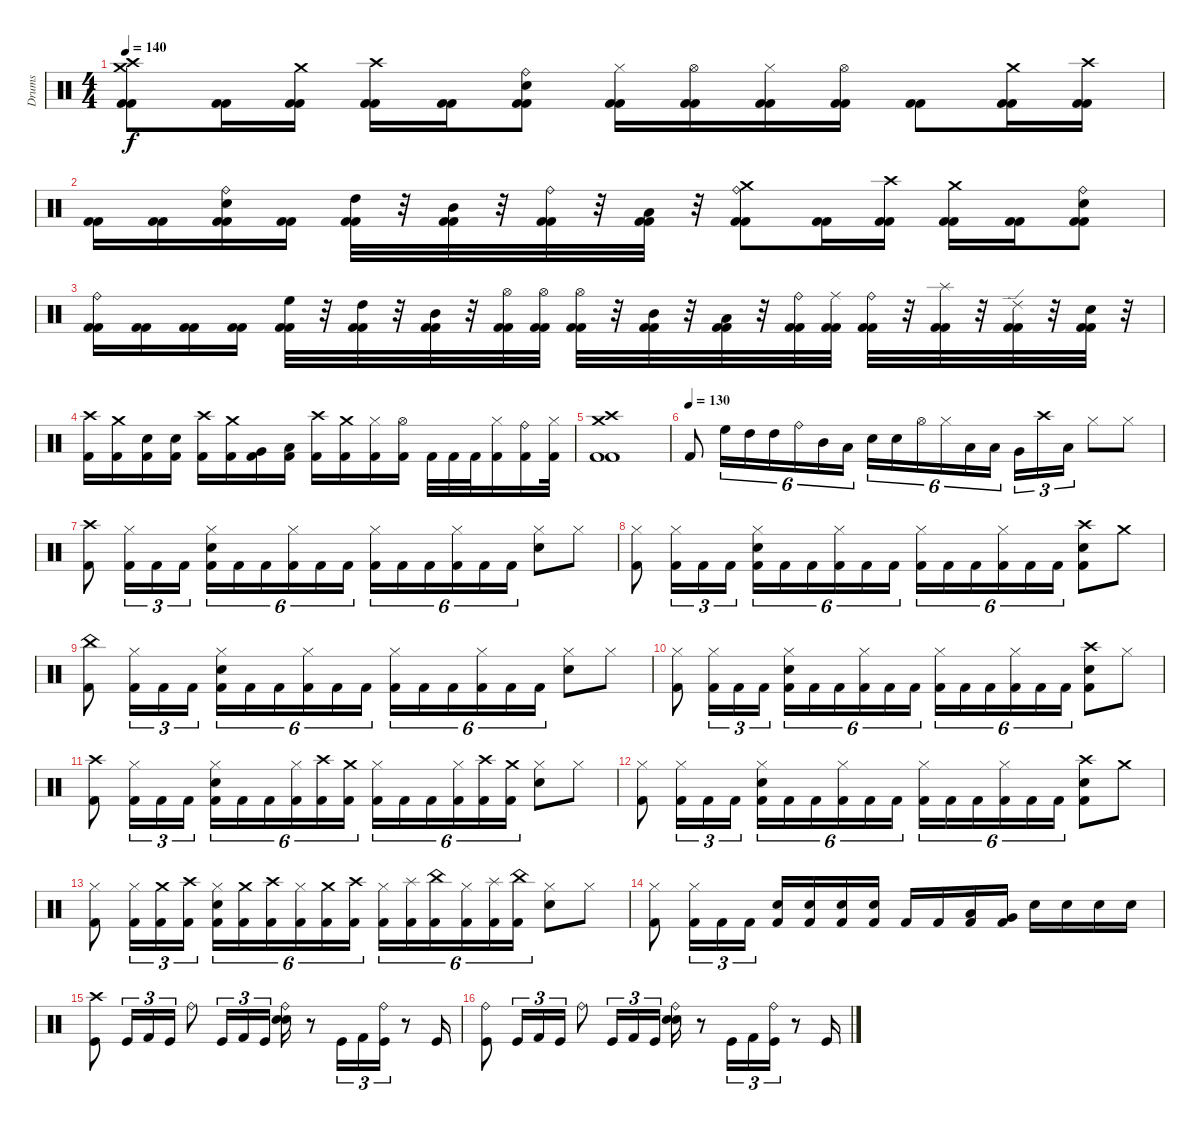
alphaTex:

\track ("Drums" "Drums") {instrument percussion}
\staff {score}
\articulation defaults
\ts (4 4)
\tempo 140
\clef neutral
\ks c
("Crash high (hit)" "Crash medium (hit)" "Kick (hit) 2" "Kick (hit) 2").8{dy f} ("Kick (hit) 2" "Kick (hit) 2").16 ("Crash medium (hit)" "Kick (hit) 2" "Kick (hit) 2").16 ("Crash high (hit)" "Kick (hit) 2" "Kick (hit) 2").16 ("Kick (hit) 2" "Kick (hit) 2").16 ("Electric Snare (hit)" "Ride (bell)" "Kick (hit) 2" "Kick (hit) 2").8 ("Hi-Hat (closed)" "Kick (hit) 2" "Kick (hit) 2").16 ("Hi-Hat (open)" "Kick (hit) 2" "Kick (hit) 2").16 ("Hi-Hat (closed)" "Kick (hit) 2" "Kick (hit) 2").16 ("Hi-Hat (open)" "Kick (hit) 2" "Kick (hit) 2").16 ("Kick (hit) 2" "Kick (hit) 2").8 ("Crash medium (hit)" "Kick (hit) 2" "Kick (hit) 2").16 ("Crash high (hit)" "Kick (hit) 2" "Kick (hit) 2").16 |
("Kick (hit) 2" "Kick (hit) 2").16 ("Kick (hit) 2" "Kick (hit) 2").16 ("Electric Snare (hit)" "Ride (bell)" "Kick (hit) 2" "Kick (hit) 2").16 ("Kick (hit) 2" "Kick (hit) 2").16 ("High Tom (hit)" "Kick (hit) 2" "Kick (hit) 2").32 r.32 ("Mid Tom (hit)" "Kick (hit) 2" "Kick (hit) 2").32 r.32 ("Ride (bell)" "Kick (hit) 2" "Kick (hit) 2").32 r.32 ("Low Floor Tom (hit)" "Kick (hit) 2" "Kick (hit) 2").32 r.32 ("Crash medium (hit)" "Ride (bell)" "Kick (hit) 2" "Kick (hit) 2").8 ("Kick (hit) 2" "Kick (hit) 2").16 ("Crash high (hit)" "Kick (hit) 2" "Kick (hit) 2").16 ("Crash medium (hit)" "Kick (hit) 2" "Kick (hit) 2").16 ("Kick (hit) 2" "Kick (hit) 2").16 ("Electric Snare (hit)" "Ride (bell)" "Kick (hit) 2" "Kick (hit) 2").8 |
("Ride (bell)" "Kick (hit) 2" "Kick (hit) 2").16 ("Kick (hit) 2" "Kick (hit) 2").16 ("Kick (hit) 2" "Kick (hit) 2").16 ("Kick (hit) 2" "Kick (hit) 2").16 ("High Floor Tom (hit)" "Kick (hit) 2" "Kick (hit) 2").32 r.32 ("High Tom (hit)" "Kick (hit) 2" "Kick (hit) 2").32 r.32 ("Mid Tom (hit)" "Kick (hit) 2" "Kick (hit) 2").32 r.32 ("Hi-Hat (open)" "Kick (hit) 2" "Kick (hit) 2").32 ("Hi-Hat (open)" "Kick (hit) 2" "Kick (hit) 2").32 ("Hi-Hat (open)" "Kick (hit) 2" "Kick (hit) 2").32 r.32 ("Mid Tom (hit)" "Kick (hit) 2" "Kick (hit) 2").32 r.32 ("Low Tom (hit)" "Kick (hit) 2" "Kick (hit) 2").32 r.32 ("Ride (bell)" "Kick (hit) 2" "Kick (hit) 2").32 ("Ride (middle)" "Kick (hit) 2" "Kick (hit) 2").32 ("Ride (bell)" "Kick (hit) 2" "Kick (hit) 2").32 r.32 ("Splash (hit)" "Kick (hit) 2" "Kick (hit) 2").32 r.32 ("Ride (edge) 2" "Kick (hit) 2" "Kick (hit) 2").32 r.32 ("Electric Snare (hit)" "Kick (hit) 2" "Kick (hit) 2").32 r.32 |
("Crash high (hit)" "Kick (hit) 2").16 ("Crash medium (hit)" "Kick (hit) 2").16 ("Electric Snare (hit)" "Kick (hit) 2").16 ("Electric Snare (hit)" "Kick (hit) 2").16 ("Crash high (hit)" "Kick (hit) 2").16 ("Crash medium (hit)" "Kick (hit) 2").16 ("Very Low Tom (hit)" "Kick (hit) 2").16 ("Low Floor Tom (hit)" "Kick (hit) 2").16 ("Crash high (hit)" "Kick (hit) 2").16 ("Crash medium (hit)" "Kick (hit) 2").16 ("Hi-Hat (closed)" "Kick (hit) 2").16 ("Hi-Hat (open)" "Kick (hit) 2").16 "Kick (hit) 2".32 "Kick (hit) 2".32 "Kick (hit) 2".32 ("Hi-Hat (closed)" "Kick (hit) 2").16 ("Ride (bell)" "Kick (hit) 2").16 ("Hi-Hat (closed)" "Kick (hit) 2").32 |
("Crash high (hit)" "Crash medium (hit)" "Kick (hit) 2" "Kick (hit) 2").1 |
\tempo (130)
"Kick (hit) 2".8 "High Floor Tom (hit)".16{tu (6 4)} "High Tom (hit)".16{tu (6 4)} "High Tom (hit)".16{tu (6 4)} "Ride (bell)".16{tu (6 4)} "Mid Tom (hit)".16{tu (6 4)} "Low Tom (hit)".16{tu (6 4)} "Electric Snare (hit)".16{tu (6 4)} "Electric Snare (hit)".16{tu (6 4)} "Hi-Hat (open)".16{tu (6 4)} "Hi-Hat (closed)".16{tu (6 4)} "Low Tom (hit)".16{tu (6 4)} "Low Tom (hit)".16{tu (6 4)} "Very Low Tom (hit)".16{tu (3 2)} "Crash high (hit)".16{tu (3 2)} "Low Floor Tom (hit)".16{tu (3 2)} "Hi-Hat (closed)".8 "Hi-Hat (closed)".8 |
("Crash high (hit)" "Kick (hit) 2").8 ("Hi-Hat (closed)" "Kick (hit) 2").16{tu (3 2)} "Kick (hit) 2".16{tu (3 2)} "Kick (hit) 2".16{tu (3 2)} ("Hi-Hat (closed)" "Electric Snare (hit)" "Kick (hit) 2").16{tu (6 4)} "Kick (hit) 2".16{tu (6 4)} "Kick (hit) 2".16{tu (6 4)} ("Hi-Hat (closed)" "Kick (hit) 2").16{tu (6 4)} "Kick (hit) 2".16{tu (6 4)} "Kick (hit) 2".16{tu (6 4)} ("Hi-Hat (closed)" "Kick (hit) 2").16{tu (6 4)} "Kick (hit) 2".16{tu (6 4)} "Kick (hit) 2".16{tu (6 4)} ("Hi-Hat (closed)" "Kick (hit) 2").16{tu (6 4)} "Kick (hit) 2".16{tu (6 4)} "Kick (hit) 2".16{tu (6 4)} ("Hi-Hat (closed)" "Electric Snare (hit)").8 "Hi-Hat (closed)".8 |
("Hi-Hat (closed)" "Kick (hit) 2").8 ("Hi-Hat (closed)" "Kick (hit) 2").16{tu (3 2)} "Kick (hit) 2".16{tu (3 2)} "Kick (hit) 2".16{tu (3 2)} ("Hi-Hat (closed)" "Electric Snare (hit)" "Kick (hit) 2").16{tu (6 4)} "Kick (hit) 2".16{tu (6 4)} "Kick (hit) 2".16{tu (6 4)} ("Hi-Hat (closed)" "Kick (hit) 2").16{tu (6 4)} "Kick (hit) 2".16{tu (6 4)} "Kick (hit) 2".16{tu (6 4)} ("Hi-Hat (closed)" "Kick (hit) 2").16{tu (6 4)} "Kick (hit) 2".16{tu (6 4)} "Kick (hit) 2".16{tu (6 4)} ("Hi-Hat (closed)" "Kick (hit) 2").16{tu (6 4)} "Kick (hit) 2".16{tu (6 4)} "Kick (hit) 2".16{tu (6 4)} ("Crash high (hit)" "Electric Snare (hit)" "Kick (hit) 2").8 "Crash medium (hit)".8 |
("China (hit)" "Kick (hit) 2").8 ("Hi-Hat (closed)" "Kick (hit) 2").16{tu (3 2)} "Kick (hit) 2".16{tu (3 2)} "Kick (hit) 2".16{tu (3 2)} ("Hi-Hat (closed)" "Electric Snare (hit)" "Kick (hit) 2").16{tu (6 4)} "Kick (hit) 2".16{tu (6 4)} "Kick (hit) 2".16{tu (6 4)} ("Hi-Hat (closed)" "Kick (hit) 2").16{tu (6 4)} "Kick (hit) 2".16{tu (6 4)} "Kick (hit) 2".16{tu (6 4)} ("Hi-Hat (closed)" "Kick (hit) 2").16{tu (6 4)} "Kick (hit) 2".16{tu (6 4)} "Kick (hit) 2".16{tu (6 4)} ("Hi-Hat (closed)" "Kick (hit) 2").16{tu (6 4)} "Kick (hit) 2".16{tu (6 4)} "Kick (hit) 2".16{tu (6 4)} ("Hi-Hat (closed)" "Electric Snare (hit)").8 "Hi-Hat (closed)".8 |
("Hi-Hat (closed)" "Kick (hit) 2").8 ("Hi-Hat (closed)" "Kick (hit) 2").16{tu (3 2)} "Kick (hit) 2".16{tu (3 2)} "Kick (hit) 2".16{tu (3 2)} ("Hi-Hat (closed)" "Electric Snare (hit)" "Kick (hit) 2").16{tu (6 4)} "Kick (hit) 2".16{tu (6 4)} "Kick (hit) 2".16{tu (6 4)} ("Hi-Hat (closed)" "Kick (hit) 2").16{tu (6 4)} "Kick (hit) 2".16{tu (6 4)} "Kick (hit) 2".16{tu (6 4)} ("Hi-Hat (closed)" "Kick (hit) 2").16{tu (6 4)} "Kick (hit) 2".16{tu (6 4)} "Kick (hit) 2".16{tu (6 4)} ("Hi-Hat (closed)" "Kick (hit) 2").16{tu (6 4)} "Kick (hit) 2".16{tu (6 4)} "Kick (hit) 2".16{tu (6 4)} ("Crash high (hit)" "Electric Snare (hit)" "Kick (hit) 2").8 "Hi-Hat (closed)".8 |
("Crash high (hit)" "Kick (hit) 2").8 ("Hi-Hat (closed)" "Kick (hit) 2").16{tu (3 2)} "Kick (hit) 2".16{tu (3 2)} "Kick (hit) 2".16{tu (3 2)} ("Hi-Hat (closed)" "Electric Snare (hit)" "Kick (hit) 2").16{tu (6 4)} "Kick (hit) 2".16{tu (6 4)} "Kick (hit) 2".16{tu (6 4)} ("Hi-Hat (closed)" "Kick (hit) 2").16{tu (6 4)} ("Crash high (hit)" "Kick (hit) 2").16{tu (6 4)} ("Crash medium (hit)" "Kick (hit) 2").16{tu (6 4)} ("Hi-Hat (closed)" "Kick (hit) 2").16{tu (6 4)} "Kick (hit) 2".16{tu (6 4)} "Kick (hit) 2".16{tu (6 4)} ("Hi-Hat (closed)" "Kick (hit) 2").16{tu (6 4)} ("Crash high (hit)" "Kick (hit) 2").16{tu (6 4)} ("Crash medium (hit)" "Kick (hit) 2").16{tu (6 4)} ("Hi-Hat (closed)" "Electric Snare (hit)").8 "Hi-Hat (closed)".8 |
("Hi-Hat (closed)" "Kick (hit) 2").8 ("Hi-Hat (closed)" "Kick (hit) 2").16{tu (3 2)} "Kick (hit) 2".16{tu (3 2)} "Kick (hit) 2".16{tu (3 2)} ("Hi-Hat (closed)" "Electric Snare (hit)" "Kick (hit) 2").16{tu (6 4)} "Kick (hit) 2".16{tu (6 4)} "Kick (hit) 2".16{tu (6 4)} ("Hi-Hat (closed)" "Kick (hit) 2").16{tu (6 4)} "Kick (hit) 2".16{tu (6 4)} "Kick (hit) 2".16{tu (6 4)} ("Hi-Hat (closed)" "Kick (hit) 2").16{tu (6 4)} "Kick (hit) 2".16{tu (6 4)} "Kick (hit) 2".16{tu (6 4)} ("Hi-Hat (closed)" "Kick (hit) 2").16{tu (6 4)} "Kick (hit) 2".16{tu (6 4)} "Kick (hit) 2".16{tu (6 4)} ("Crash high (hit)" "Electric Snare (hit)" "Kick (hit) 2").8 "Crash medium (hit)".8 |
("Hi-Hat (closed)" "Kick (hit) 2").8 ("Hi-Hat (closed)" "Kick (hit) 2").16{tu (3 2)} ("Crash medium (hit)" "Kick (hit) 2").16{tu (3 2)} ("Crash high (hit)" "Kick (hit) 2").16{tu (3 2)} ("Hi-Hat (closed)" "Electric Snare (hit)" "Kick (hit) 2").16{tu (6 4)} ("Crash medium (hit)" "Kick (hit) 2").16{tu (6 4)} ("Crash high (hit)" "Kick (hit) 2").16{tu (6 4)} ("Hi-Hat (closed)" "Kick (hit) 2").16{tu (6 4)} ("Crash medium (hit)" "Kick (hit) 2").16{tu (6 4)} ("Crash high (hit)" "Kick (hit) 2").16{tu (6 4)} ("Hi-Hat (closed)" "Kick (hit) 2").16{tu (6 4)} ("Splash (hit)" "Kick (hit) 2").16{tu (6 4)} ("China (hit)" "Kick (hit) 2").16{tu (6 4)} ("Hi-Hat (closed)" "Kick (hit) 2").16{tu (6 4)} ("Splash (hit)" "Kick (hit) 2").16{tu (6 4)} ("China (hit)" "Kick (hit) 2").16{tu (6 4)} ("Hi-Hat (closed)" "Electric Snare (hit)").8 "Hi-Hat (closed)".8 |
("Hi-Hat (closed)" "Kick (hit) 2").8 ("Hi-Hat (closed)" "Kick (hit) 2").16{tu (3 2)} "Kick (hit) 2".16{tu (3 2)} "Kick (hit) 2".16{tu (3 2)} ("Electric Snare (hit)" "Kick (hit) 2").16 ("Electric Snare (hit)" "Kick (hit) 2").16 ("Electric Snare (hit)" "Kick (hit) 2").16 ("Electric Snare (hit)" "Kick (hit) 2").16 "Kick (hit) 2".16 "Kick (hit) 2".16 ("Low Tom (hit)" "Kick (hit) 2").16 ("Very Low Tom (hit)" "Kick (hit) 2").16 "Electric Snare (hit)".16 "Electric Snare (hit)".16 "Electric Snare (hit)".16 "Electric Snare (hit)".16 |
("Kick (hit)" "Crash high (hit)").8 "Kick (hit)".16{tu (3 2)} "Kick (hit) 2".16{tu (3 2)} "Kick (hit)".16{tu (3 2)} "Ride (bell)".8 "Kick (hit)".16{tu (3 2)} "Kick (hit) 2".16{tu (3 2)} "Kick (hit)".16{tu (3 2)} ("Ride (bell)" "Snare (hit) 2" "Snare (hit) 2").16 r.8 "Kick (hit)".16{tu (3 2)} "Kick (hit) 2".16{tu (3 2)} ("Kick (hit)" "Ride (bell)").16{tu (3 2)} r.8 "Kick (hit)".16 |
("Kick (hit)" "Ride (bell)").8 "Kick (hit)".16{tu (3 2)} "Kick (hit) 2".16{tu (3 2)} "Kick (hit)".16{tu (3 2)} "Ride (bell)".8 "Kick (hit)".16{tu (3 2)} "Kick (hit) 2".16{tu (3 2)} "Kick (hit)".16{tu (3 2)} ("Ride (bell)" "Snare (hit) 2" "Snare (hit) 2").16 r.8 "Kick (hit)".16{tu (3 2)} "Kick (hit) 2".16{tu (3 2)} ("Kick (hit)" "Ride (bell)").16{tu (3 2)} r.8 "Kick (hit)".16
